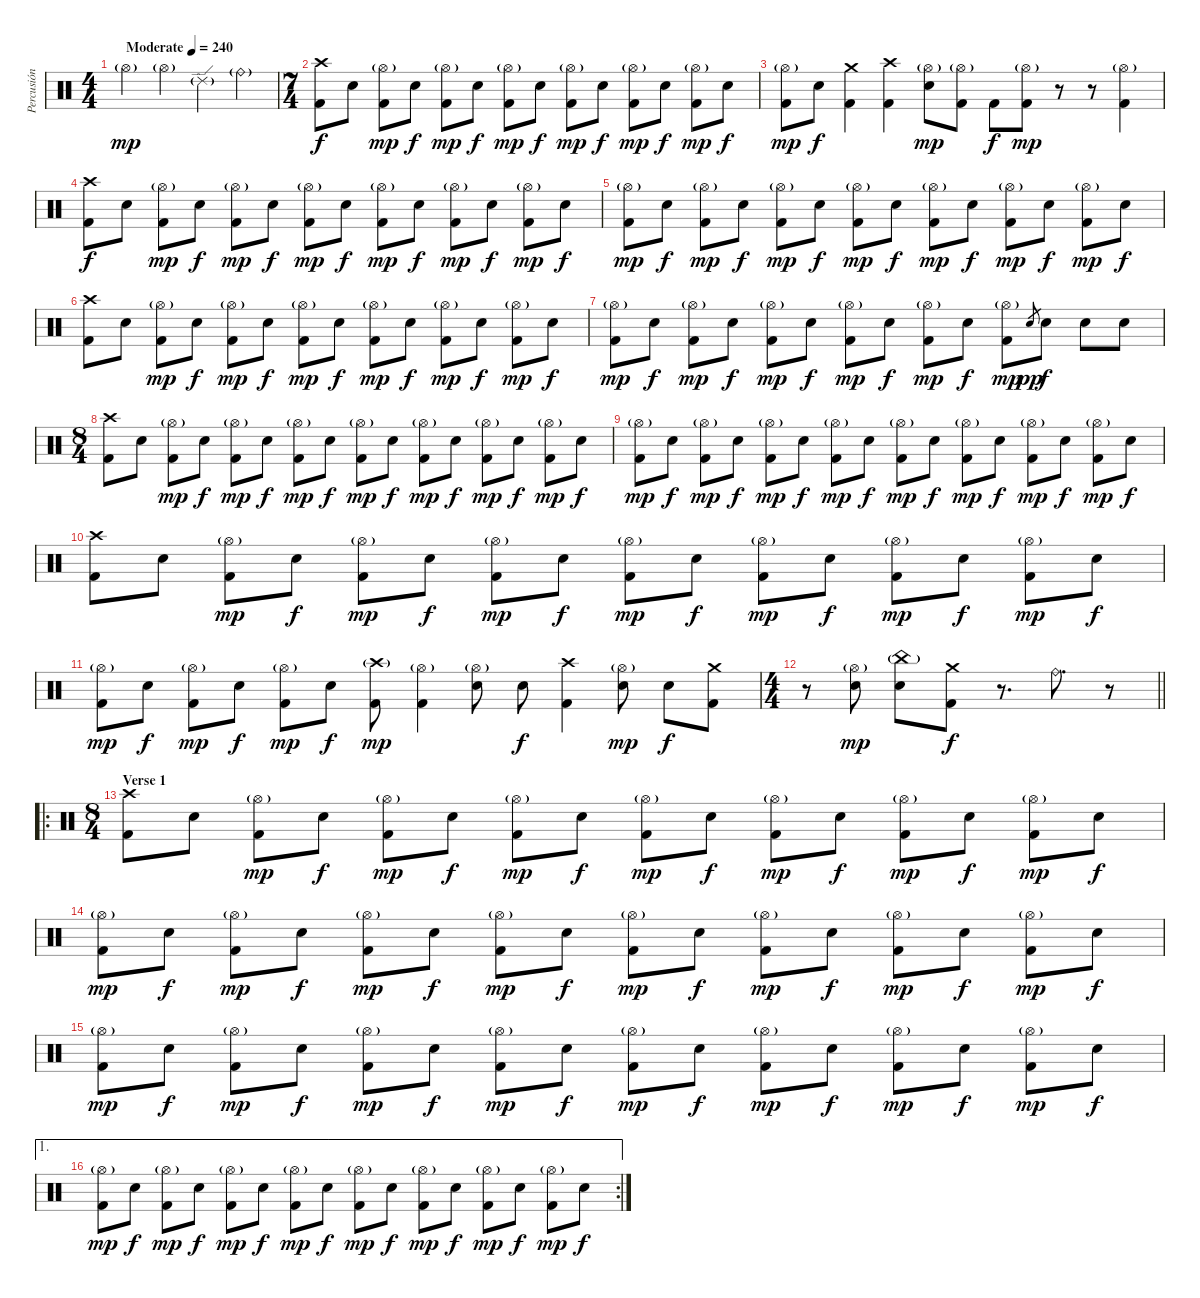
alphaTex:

\track ("Percusión" "Percusión") {instrument percussion}
\staff {score}
\articulation defaults
\ts (4 4)
\tempo (240 "Moderate")
\clef neutral
\ks c "Hi-Hat (open)"{g}.4{dy mp} "Hi-Hat (open)"{g}.4 "Ride (edge) 2"{g}.4 "Ride (bell)"{g}.4
|
\ts (7 4)
("Crash high (hit)" "Kick (hit) 2").8{dy f} "Electric Snare (hit)".8 ("Hi-Hat (open)"{g} "Kick (hit) 2").8{dy mp} "Electric Snare (hit)".8{dy f} ("Hi-Hat (open)"{g} "Kick (hit) 2").8{dy mp} "Electric Snare (hit)".8{dy f} ("Hi-Hat (open)"{g} "Kick (hit) 2").8{dy mp} "Electric Snare (hit)".8{dy f} ("Hi-Hat (open)"{g} "Kick (hit) 2").8{dy mp} "Electric Snare (hit)".8{dy f} ("Hi-Hat (open)"{g} "Kick (hit) 2").8{dy mp} "Electric Snare (hit)".8{dy f} ("Hi-Hat (open)"{g} "Kick (hit) 2").8{dy mp} "Electric Snare (hit)".8{dy f} |
("Hi-Hat (open)"{g} "Kick (hit) 2").8{dy mp} "Electric Snare (hit)".8{dy f} ("Crash medium (hit)" "Kick (hit) 2").4 ("Crash high (hit)" "Kick (hit) 2").4 ("Hi-Hat (open)"{g} "Electric Snare (hit)").8{dy mp} ("Hi-Hat (open)"{g} "Kick (hit) 2").8 "Kick (hit) 2".8{dy f} ("Hi-Hat (open)"{g} "Kick (hit) 2").8{dy mp} r.8 r.8 ("Hi-Hat (open)"{g} "Kick (hit) 2").4 |
("Crash high (hit)" "Kick (hit) 2").8{dy f} "Electric Snare (hit)".8 ("Hi-Hat (open)"{g} "Kick (hit) 2").8{dy mp} "Electric Snare (hit)".8{dy f} ("Hi-Hat (open)"{g} "Kick (hit) 2").8{dy mp} "Electric Snare (hit)".8{dy f} ("Hi-Hat (open)"{g} "Kick (hit) 2").8{dy mp} "Electric Snare (hit)".8{dy f} ("Hi-Hat (open)"{g} "Kick (hit) 2").8{dy mp} "Electric Snare (hit)".8{dy f} ("Hi-Hat (open)"{g} "Kick (hit) 2").8{dy mp} "Electric Snare (hit)".8{dy f} ("Hi-Hat (open)"{g} "Kick (hit) 2").8{dy mp} "Electric Snare (hit)".8{dy f} |
("Hi-Hat (open)"{g} "Kick (hit) 2").8{dy mp} "Electric Snare (hit)".8{dy f} ("Hi-Hat (open)"{g} "Kick (hit) 2").8{dy mp} "Electric Snare (hit)".8{dy f} ("Hi-Hat (open)"{g} "Kick (hit) 2").8{dy mp} "Electric Snare (hit)".8{dy f} ("Hi-Hat (open)"{g} "Kick (hit) 2").8{dy mp} "Electric Snare (hit)".8{dy f} ("Hi-Hat (open)"{g} "Kick (hit) 2").8{dy mp} "Electric Snare (hit)".8{dy f} ("Hi-Hat (open)"{g} "Kick (hit) 2").8{dy mp} "Electric Snare (hit)".8{dy f} ("Hi-Hat (open)"{g} "Kick (hit) 2").8{dy mp} "Electric Snare (hit)".8{dy f} |
("Crash high (hit)" "Kick (hit) 2").8 "Electric Snare (hit)".8 ("Hi-Hat (open)"{g} "Kick (hit) 2").8{dy mp} "Electric Snare (hit)".8{dy f} ("Hi-Hat (open)"{g} "Kick (hit) 2").8{dy mp} "Electric Snare (hit)".8{dy f} ("Hi-Hat (open)"{g} "Kick (hit) 2").8{dy mp} "Electric Snare (hit)".8{dy f} ("Hi-Hat (open)"{g} "Kick (hit) 2").8{dy mp} "Electric Snare (hit)".8{dy f} ("Hi-Hat (open)"{g} "Kick (hit) 2").8{dy mp} "Electric Snare (hit)".8{dy f} ("Hi-Hat (open)"{g} "Kick (hit) 2").8{dy mp} "Electric Snare (hit)".8{dy f} |
("Hi-Hat (open)"{g} "Kick (hit) 2").8{dy mp} "Electric Snare (hit)".8{dy f} ("Hi-Hat (open)"{g} "Kick (hit) 2").8{dy mp} "Electric Snare (hit)".8{dy f} ("Hi-Hat (open)"{g} "Kick (hit) 2").8{dy mp} "Electric Snare (hit)".8{dy f} ("Hi-Hat (open)"{g} "Kick (hit) 2").8{dy mp} "Electric Snare (hit)".8{dy f} ("Hi-Hat (open)"{g} "Kick (hit) 2").8{dy mp} "Electric Snare (hit)".8{dy f} ("Hi-Hat (open)"{g} "Kick (hit) 2").8{dy mp} "Electric Snare (hit)".8{gr dy pp} "Electric Snare (hit)".8{dy f} "Electric Snare (hit)".8 "Electric Snare (hit)".8 |
\ts (8 4)
("Crash high (hit)" "Kick (hit) 2").8 "Electric Snare (hit)".8 ("Hi-Hat (open)"{g} "Kick (hit) 2").8{dy mp} "Electric Snare (hit)".8{dy f} ("Hi-Hat (open)"{g} "Kick (hit) 2").8{dy mp} "Electric Snare (hit)".8{dy f} ("Hi-Hat (open)"{g} "Kick (hit) 2").8{dy mp} "Electric Snare (hit)".8{dy f} ("Hi-Hat (open)"{g} "Kick (hit) 2").8{dy mp} "Electric Snare (hit)".8{dy f} ("Hi-Hat (open)"{g} "Kick (hit) 2").8{dy mp} "Electric Snare (hit)".8{dy f} ("Hi-Hat (open)"{g} "Kick (hit) 2").8{dy mp} "Electric Snare (hit)".8{dy f} ("Hi-Hat (open)"{g} "Kick (hit) 2").8{dy mp} "Electric Snare (hit)".8{dy f} |
("Hi-Hat (open)"{g} "Kick (hit) 2").8{dy mp} "Electric Snare (hit)".8{dy f} ("Hi-Hat (open)"{g} "Kick (hit) 2").8{dy mp} "Electric Snare (hit)".8{dy f} ("Hi-Hat (open)"{g} "Kick (hit) 2").8{dy mp} "Electric Snare (hit)".8{dy f} ("Hi-Hat (open)"{g} "Kick (hit) 2").8{dy mp} "Electric Snare (hit)".8{dy f} ("Hi-Hat (open)"{g} "Kick (hit) 2").8{dy mp} "Electric Snare (hit)".8{dy f} ("Hi-Hat (open)"{g} "Kick (hit) 2").8{dy mp} "Electric Snare (hit)".8{dy f} ("Hi-Hat (open)"{g} "Kick (hit) 2").8{dy mp} "Electric Snare (hit)".8{dy f} ("Hi-Hat (open)"{g} "Kick (hit) 2").8{dy mp} "Electric Snare (hit)".8{dy f} |
("Crash high (hit)" "Kick (hit) 2").8 "Electric Snare (hit)".8 ("Hi-Hat (open)"{g} "Kick (hit) 2").8{dy mp} "Electric Snare (hit)".8{dy f} ("Hi-Hat (open)"{g} "Kick (hit) 2").8{dy mp} "Electric Snare (hit)".8{dy f} ("Hi-Hat (open)"{g} "Kick (hit) 2").8{dy mp} "Electric Snare (hit)".8{dy f} ("Hi-Hat (open)"{g} "Kick (hit) 2").8{dy mp} "Electric Snare (hit)".8{dy f} ("Hi-Hat (open)"{g} "Kick (hit) 2").8{dy mp} "Electric Snare (hit)".8{dy f} ("Hi-Hat (open)"{g} "Kick (hit) 2").8{dy mp} "Electric Snare (hit)".8{dy f} ("Hi-Hat (open)"{g} "Kick (hit) 2").8{dy mp} "Electric Snare (hit)".8{dy f} |
("Hi-Hat (open)"{g} "Kick (hit) 2").8{dy mp} "Electric Snare (hit)".8{dy f} ("Hi-Hat (open)"{g} "Kick (hit) 2").8{dy mp} "Electric Snare (hit)".8{dy f} ("Hi-Hat (open)"{g} "Kick (hit) 2").8{dy mp} "Electric Snare (hit)".8{dy f} ("Crash high (hit)"{g} "Kick (hit) 2").8{dy mp} ("Hi-Hat (open)"{g} "Kick (hit) 2").4 ("Hi-Hat (open)"{g} "Electric Snare (hit)").8 "Electric Snare (hit)".8{dy f} ("Crash high (hit)" "Kick (hit) 2").4 ("Hi-Hat (open)"{g} "Electric Snare (hit)").8{dy mp} "Electric Snare (hit)".8{dy f} ("Crash medium (hit)" "Kick (hit) 2").8 |
\ts (4 4)
\barLineRight lightlight
r.8 ("Hi-Hat (open)"{g} "Electric Snare (hit)").8{dy mp} ("China (hit)"{g} "Electric Snare (hit)").8 ("Crash medium (hit)" "Kick (hit) 2").8{dy f} r.8{d} "Ride (bell)".8{d} r.8 |
\ro
\ts (8 4)
\section ("" "Verse 1")
("Crash high (hit)" "Kick (hit) 2").8 "Electric Snare (hit)".8 ("Hi-Hat (open)"{g} "Kick (hit) 2").8{dy mp} "Electric Snare (hit)".8{dy f} ("Hi-Hat (open)"{g} "Kick (hit) 2").8{dy mp} "Electric Snare (hit)".8{dy f} ("Hi-Hat (open)"{g} "Kick (hit) 2").8{dy mp} "Electric Snare (hit)".8{dy f} ("Hi-Hat (open)"{g} "Kick (hit) 2").8{dy mp} "Electric Snare (hit)".8{dy f} ("Hi-Hat (open)"{g} "Kick (hit) 2").8{dy mp} "Electric Snare (hit)".8{dy f} ("Hi-Hat (open)"{g} "Kick (hit) 2").8{dy mp} "Electric Snare (hit)".8{dy f} ("Hi-Hat (open)"{g} "Kick (hit) 2").8{dy mp} "Electric Snare (hit)".8{dy f} |
("Hi-Hat (open)"{g} "Kick (hit) 2").8{dy mp} "Electric Snare (hit)".8{dy f} ("Hi-Hat (open)"{g} "Kick (hit) 2").8{dy mp} "Electric Snare (hit)".8{dy f} ("Hi-Hat (open)"{g} "Kick (hit) 2").8{dy mp} "Electric Snare (hit)".8{dy f} ("Hi-Hat (open)"{g} "Kick (hit) 2").8{dy mp} "Electric Snare (hit)".8{dy f} ("Hi-Hat (open)"{g} "Kick (hit) 2").8{dy mp} "Electric Snare (hit)".8{dy f} ("Hi-Hat (open)"{g} "Kick (hit) 2").8{dy mp} "Electric Snare (hit)".8{dy f} ("Hi-Hat (open)"{g} "Kick (hit) 2").8{dy mp} "Electric Snare (hit)".8{dy f} ("Hi-Hat (open)"{g} "Kick (hit) 2").8{dy mp} "Electric Snare (hit)".8{dy f} |
("Hi-Hat (open)"{g} "Kick (hit) 2").8{dy mp} "Electric Snare (hit)".8{dy f} ("Hi-Hat (open)"{g} "Kick (hit) 2").8{dy mp} "Electric Snare (hit)".8{dy f} ("Hi-Hat (open)"{g} "Kick (hit) 2").8{dy mp} "Electric Snare (hit)".8{dy f} ("Hi-Hat (open)"{g} "Kick (hit) 2").8{dy mp} "Electric Snare (hit)".8{dy f} ("Hi-Hat (open)"{g} "Kick (hit) 2").8{dy mp} "Electric Snare (hit)".8{dy f} ("Hi-Hat (open)"{g} "Kick (hit) 2").8{dy mp} "Electric Snare (hit)".8{dy f} ("Hi-Hat (open)"{g} "Kick (hit) 2").8{dy mp} "Electric Snare (hit)".8{dy f} ("Hi-Hat (open)"{g} "Kick (hit) 2").8{dy mp} "Electric Snare (hit)".8{dy f} |
\ae 1
\rc 2
("Hi-Hat (open)"{g} "Kick (hit) 2").8{dy mp} "Electric Snare (hit)".8{dy f} ("Hi-Hat (open)"{g} "Kick (hit) 2").8{dy mp} "Electric Snare (hit)".8{dy f} ("Hi-Hat (open)"{g} "Kick (hit) 2").8{dy mp} "Electric Snare (hit)".8{dy f} ("Hi-Hat (open)"{g} "Kick (hit) 2").8{dy mp} "Electric Snare (hit)".8{dy f} ("Hi-Hat (open)"{g} "Kick (hit) 2").8{dy mp} "Electric Snare (hit)".8{dy f} ("Hi-Hat (open)"{g} "Kick (hit) 2").8{dy mp} "Electric Snare (hit)".8{dy f} ("Hi-Hat (open)"{g} "Kick (hit) 2").8{dy mp} "Electric Snare (hit)".8{dy f} ("Hi-Hat (open)"{g} "Kick (hit) 2").8{dy mp} "Electric Snare (hit)".8{dy f}
